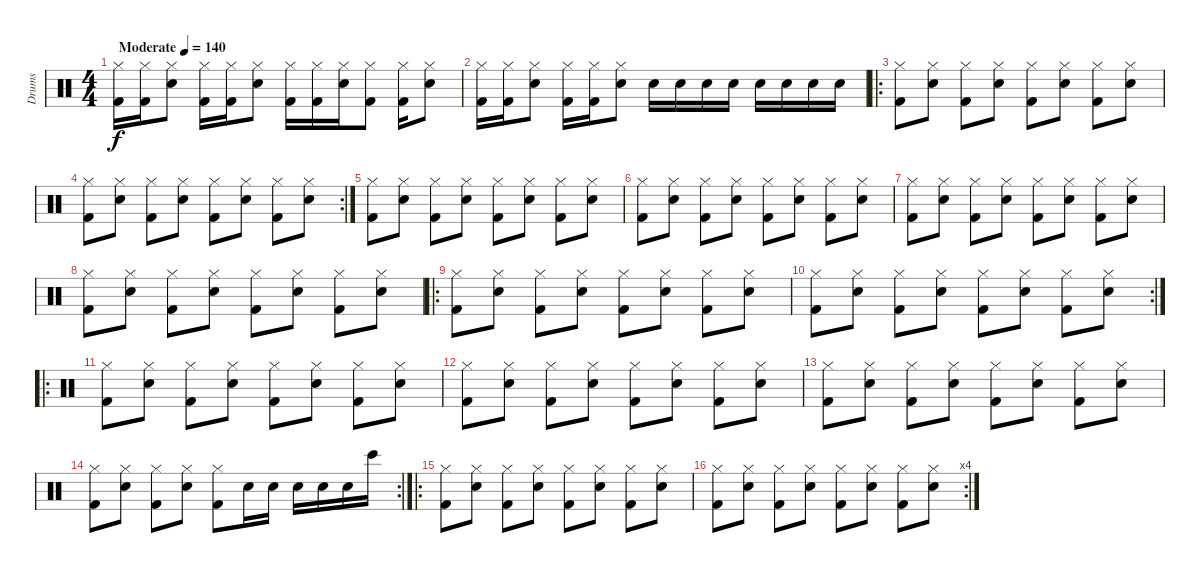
\track ("Drums" "Drums") {instrument percussion}
\staff {score}
\articulation defaults
\ts (4 4)
\tempo (140 "Moderate")
\clef neutral
\ks c
("Hi-Hat (closed)" "Kick (hit) 2").16{dy f} ("Hi-Hat (closed)" "Kick (hit) 2").16 ("Hi-Hat (closed)" "Snare (hit) 2").8 ("Hi-Hat (closed)" "Kick (hit) 2").16 ("Hi-Hat (closed)" "Kick (hit) 2").16 ("Hi-Hat (closed)" "Snare (hit) 2").8 ("Hi-Hat (closed)" "Kick (hit) 2").16 ("Hi-Hat (closed)" "Kick (hit) 2").16 ("Hi-Hat (closed)" "Snare (hit) 2").16 ("Hi-Hat (closed)" "Kick (hit) 2").8 ("Hi-Hat (closed)" "Kick (hit) 2").16 ("Hi-Hat (closed)" "Snare (hit) 2").8 |
("Hi-Hat (closed)" "Kick (hit) 2").16 ("Hi-Hat (closed)" "Kick (hit) 2").16 ("Hi-Hat (closed)" "Snare (hit) 2").8 ("Hi-Hat (closed)" "Kick (hit) 2").16 ("Hi-Hat (closed)" "Kick (hit) 2").16 ("Hi-Hat (closed)" "Snare (hit) 2").8 "Snare (hit) 2".16 "Snare (hit) 2".16 "Snare (hit) 2".16 "Snare (hit) 2".16 "Snare (hit) 2".16 "Snare (hit) 2".16 "Snare (hit) 2".16 "Snare (hit) 2".16 |
\ro
("Hi-Hat (closed)" "Kick (hit) 2").8 ("Hi-Hat (closed)" "Snare (hit) 2").8 ("Hi-Hat (closed)" "Kick (hit) 2").8 ("Hi-Hat (closed)" "Snare (hit) 2").8 ("Hi-Hat (closed)" "Kick (hit) 2").8 ("Hi-Hat (closed)" "Snare (hit) 2").8 ("Hi-Hat (closed)" "Kick (hit) 2").8 ("Hi-Hat (closed)" "Snare (hit) 2").8 |
\rc 2
("Hi-Hat (closed)" "Kick (hit) 2").8 ("Hi-Hat (closed)" "Snare (hit) 2").8 ("Hi-Hat (closed)" "Kick (hit) 2").8 ("Hi-Hat (closed)" "Snare (hit) 2").8 ("Hi-Hat (closed)" "Kick (hit) 2").8 ("Hi-Hat (closed)" "Snare (hit) 2").8 ("Hi-Hat (closed)" "Kick (hit) 2").8 ("Hi-Hat (closed)" "Snare (hit) 2").8 |
("Hi-Hat (closed)" "Kick (hit) 2").8 ("Hi-Hat (closed)" "Snare (hit) 2").8 ("Hi-Hat (closed)" "Kick (hit) 2").8 ("Hi-Hat (closed)" "Snare (hit) 2").8 ("Hi-Hat (closed)" "Kick (hit) 2").8 ("Hi-Hat (closed)" "Snare (hit) 2").8 ("Hi-Hat (closed)" "Kick (hit) 2").8 ("Hi-Hat (closed)" "Snare (hit) 2").8 |
("Hi-Hat (closed)" "Kick (hit) 2").8 ("Hi-Hat (closed)" "Snare (hit) 2").8 ("Hi-Hat (closed)" "Kick (hit) 2").8 ("Hi-Hat (closed)" "Snare (hit) 2").8 ("Hi-Hat (closed)" "Kick (hit) 2").8 ("Hi-Hat (closed)" "Snare (hit) 2").8 ("Hi-Hat (closed)" "Kick (hit) 2").8 ("Hi-Hat (closed)" "Snare (hit) 2").8 |
("Hi-Hat (closed)" "Kick (hit) 2").8 ("Hi-Hat (closed)" "Snare (hit) 2").8 ("Hi-Hat (closed)" "Kick (hit) 2").8 ("Hi-Hat (closed)" "Snare (hit) 2").8 ("Hi-Hat (closed)" "Kick (hit) 2").8 ("Hi-Hat (closed)" "Snare (hit) 2").8 ("Hi-Hat (closed)" "Kick (hit) 2").8 ("Hi-Hat (closed)" "Snare (hit) 2").8 |
("Hi-Hat (closed)" "Kick (hit) 2").8 ("Hi-Hat (closed)" "Snare (hit) 2").8 ("Hi-Hat (closed)" "Kick (hit) 2").8 ("Hi-Hat (closed)" "Snare (hit) 2").8 ("Hi-Hat (closed)" "Kick (hit) 2").8 ("Hi-Hat (closed)" "Snare (hit) 2").8 ("Hi-Hat (closed)" "Kick (hit) 2").8 ("Hi-Hat (closed)" "Snare (hit) 2").8 |
\ro
("Hi-Hat (closed)" "Kick (hit) 2").8 ("Hi-Hat (closed)" "Snare (hit) 2").8 ("Hi-Hat (closed)" "Kick (hit) 2").8 ("Hi-Hat (closed)" "Snare (hit) 2").8 ("Hi-Hat (closed)" "Kick (hit) 2").8 ("Hi-Hat (closed)" "Snare (hit) 2").8 ("Hi-Hat (closed)" "Kick (hit) 2").8 ("Hi-Hat (closed)" "Snare (hit) 2").8 |
\rc 2
("Hi-Hat (closed)" "Kick (hit) 2").8 ("Hi-Hat (closed)" "Snare (hit) 2").8 ("Hi-Hat (closed)" "Kick (hit) 2").8 ("Hi-Hat (closed)" "Snare (hit) 2").8 ("Hi-Hat (closed)" "Kick (hit) 2").8 ("Hi-Hat (closed)" "Snare (hit) 2").8 ("Hi-Hat (closed)" "Kick (hit) 2").8 ("Hi-Hat (closed)" "Snare (hit) 2").8 |
\ro
("Hi-Hat (closed)" "Kick (hit) 2").8 ("Hi-Hat (closed)" "Snare (hit) 2").8 ("Hi-Hat (closed)" "Kick (hit) 2").8 ("Hi-Hat (closed)" "Snare (hit) 2").8 ("Hi-Hat (closed)" "Kick (hit) 2").8 ("Hi-Hat (closed)" "Snare (hit) 2").8 ("Hi-Hat (closed)" "Kick (hit) 2").8 ("Hi-Hat (closed)" "Snare (hit) 2").8 |
("Hi-Hat (closed)" "Kick (hit) 2").8 ("Hi-Hat (closed)" "Snare (hit) 2").8 ("Hi-Hat (closed)" "Kick (hit) 2").8 ("Hi-Hat (closed)" "Snare (hit) 2").8 ("Hi-Hat (closed)" "Kick (hit) 2").8 ("Hi-Hat (closed)" "Snare (hit) 2").8 ("Hi-Hat (closed)" "Kick (hit) 2").8 ("Hi-Hat (closed)" "Snare (hit) 2").8 |
("Hi-Hat (closed)" "Kick (hit) 2").8 ("Hi-Hat (closed)" "Snare (hit) 2").8 ("Hi-Hat (closed)" "Kick (hit) 2").8 ("Hi-Hat (closed)" "Snare (hit) 2").8 ("Hi-Hat (closed)" "Kick (hit) 2").8 ("Hi-Hat (closed)" "Snare (hit) 2").8 ("Hi-Hat (closed)" "Kick (hit) 2").8 ("Hi-Hat (closed)" "Snare (hit) 2").8 |
\rc 2
("Hi-Hat (closed)" "Kick (hit) 2").8 ("Hi-Hat (closed)" "Snare (hit) 2").8 ("Hi-Hat (closed)" "Kick (hit) 2").8 ("Hi-Hat (closed)" "Snare (hit) 2").8 ("Hi-Hat (closed)" "Kick (hit) 2").8 "Snare (hit) 2".16 "Snare (hit) 2".16 "Snare (hit) 2".16 "Snare (hit) 2".16 "Snare (hit) 2".16 "Bongo High (hit)".16 |
\ro
("Hi-Hat (closed)" "Kick (hit) 2").8 ("Hi-Hat (closed)" "Snare (hit) 2").8 ("Hi-Hat (closed)" "Kick (hit) 2").8 ("Hi-Hat (closed)" "Snare (hit) 2").8 ("Hi-Hat (closed)" "Kick (hit) 2").8 ("Hi-Hat (closed)" "Snare (hit) 2").8 ("Hi-Hat (closed)" "Kick (hit) 2").8 ("Hi-Hat (closed)" "Snare (hit) 2").8 |
\rc 4
("Hi-Hat (closed)" "Kick (hit) 2").8 ("Hi-Hat (closed)" "Snare (hit) 2").8 ("Hi-Hat (closed)" "Kick (hit) 2").8 ("Hi-Hat (closed)" "Snare (hit) 2").8 ("Hi-Hat (closed)" "Kick (hit) 2").8 ("Hi-Hat (closed)" "Snare (hit) 2").8 ("Hi-Hat (closed)" "Kick (hit) 2").8 ("Hi-Hat (closed)" "Snare (hit) 2").8
